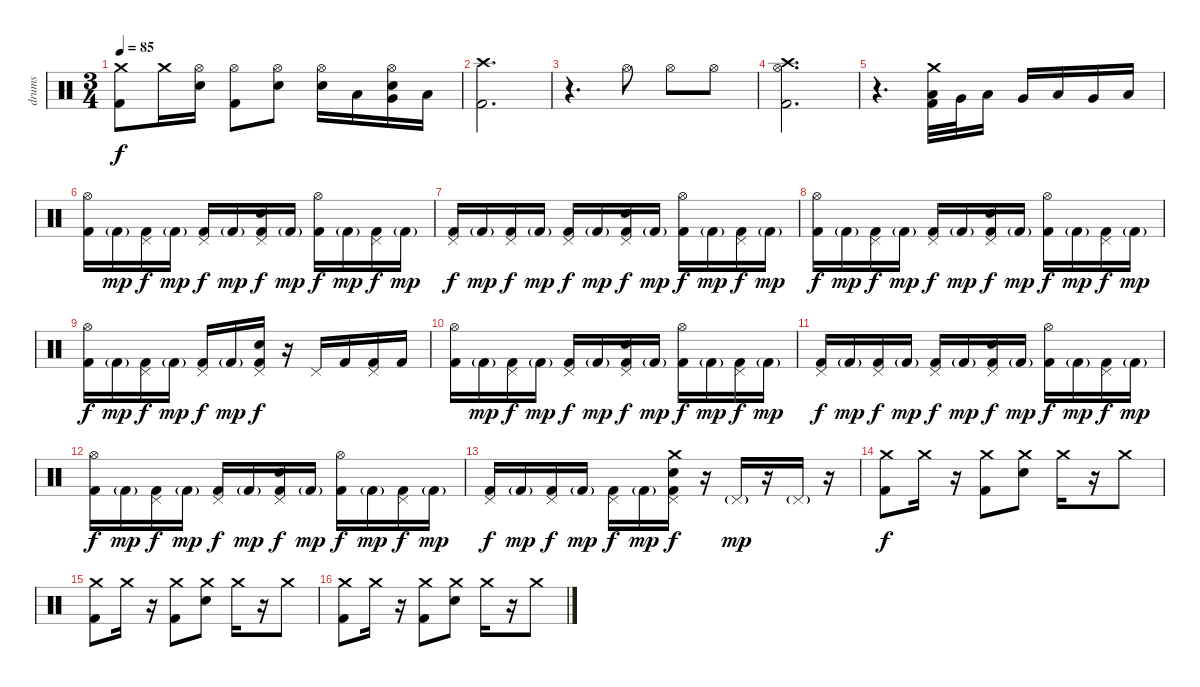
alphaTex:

\track ("drums" "drums") {instrument percussion}
\staff {score}
\articulation defaults
\ts (3 4)
\tempo 85
\clef neutral
\ks c
("Crash medium (hit)" "Kick (hit) 2").8{dy f} "Crash medium (hit)".16 ("Snare (hit) 2" "Hi-Hat (open)").16 ("Kick (hit) 2" "Hi-Hat (open)").8 ("Snare (hit) 2" "Hi-Hat (open)").8 ("Snare (hit) 2" "Hi-Hat (open)").16 "Low Floor Tom (hit)".16 ("Snare (hit) 2" "Very Low Tom (hit)" "Hi-Hat (open)").16 "Low Floor Tom (hit)".16 |
("Crash high (hit)" "Kick (hit) 2").2{d} |
r.4{d} "Hi-Hat (open)".8 "Hi-Hat (open)".8 "Hi-Hat (open)".8 |
("Hi-Hat (open)" "Kick (hit) 2" "Crash high (hit)").2{d} |
r.4{d} ("Crash medium (hit)" "Low Floor Tom (hit)" "Kick (hit) 2").32 "Very Low Tom (hit)".32 "Low Tom (hit)".16 "Very Low Tom (hit)".16 "Low Tom (hit)".16 "Very Low Tom (hit)".16 "Low Floor Tom (hit)".16 |
("Hi-Hat (open)" "Kick (hit) 2").16 "Kick (hit) 2"{g}.16{dy mp} ("Pedal Hi-Hat (hit)" "Kick (hit) 2").16{dy f} "Kick (hit) 2"{g}.16{dy mp} ("Pedal Hi-Hat (hit)" "Kick (hit) 2").16{dy f} "Kick (hit) 2"{g}.16{dy mp} ("Snare (hit) 2" "Pedal Hi-Hat (hit)" "Kick (hit) 2").16{dy f} "Kick (hit) 2"{g}.16{dy mp} ("Hi-Hat (open)" "Kick (hit) 2").16{dy f} "Kick (hit) 2"{g}.16{dy mp} ("Pedal Hi-Hat (hit)" "Kick (hit) 2").16{dy f} "Kick (hit) 2"{g}.16{dy mp} |
("Pedal Hi-Hat (hit)" "Kick (hit) 2").16{dy f} "Kick (hit) 2"{g}.16{dy mp} ("Pedal Hi-Hat (hit)" "Kick (hit) 2").16{dy f} "Kick (hit) 2"{g}.16{dy mp} ("Pedal Hi-Hat (hit)" "Kick (hit) 2").16{dy f} "Kick (hit) 2"{g}.16{dy mp} ("Snare (hit) 2" "Pedal Hi-Hat (hit)" "Kick (hit) 2").16{dy f} "Kick (hit) 2"{g}.16{dy mp} ("Hi-Hat (open)" "Kick (hit) 2").16{dy f} "Kick (hit) 2"{g}.16{dy mp} ("Pedal Hi-Hat (hit)" "Kick (hit) 2").16{dy f} "Kick (hit) 2"{g}.16{dy mp} |
("Hi-Hat (open)" "Kick (hit) 2").16{dy f} "Kick (hit) 2"{g}.16{dy mp} ("Pedal Hi-Hat (hit)" "Kick (hit) 2").16{dy f} "Kick (hit) 2"{g}.16{dy mp} ("Pedal Hi-Hat (hit)" "Kick (hit) 2").16{dy f} "Kick (hit) 2"{g}.16{dy mp} ("Snare (hit) 2" "Pedal Hi-Hat (hit)" "Kick (hit) 2").16{dy f} "Kick (hit) 2"{g}.16{dy mp} ("Hi-Hat (open)" "Kick (hit) 2").16{dy f} "Kick (hit) 2"{g}.16{dy mp} ("Pedal Hi-Hat (hit)" "Kick (hit) 2").16{dy f} "Kick (hit) 2"{g}.16{dy mp} |
("Hi-Hat (open)" "Kick (hit) 2").16{dy f} "Kick (hit) 2"{g}.16{dy mp} ("Pedal Hi-Hat (hit)" "Kick (hit) 2").16{dy f} "Kick (hit) 2"{g}.16{dy mp} ("Pedal Hi-Hat (hit)" "Kick (hit) 2").16{dy f} "Kick (hit) 2"{g}.16{dy mp} ("Snare (hit) 2" "Pedal Hi-Hat (hit)" "Kick (hit) 2").16{dy f} r.16 "Pedal Hi-Hat (hit)".16 "Kick (hit) 2".16 ("Pedal Hi-Hat (hit)" "Kick (hit) 2").16 "Kick (hit) 2".16 |
("Hi-Hat (open)" "Kick (hit) 2").16 "Kick (hit) 2"{g}.16{dy mp} ("Pedal Hi-Hat (hit)" "Kick (hit) 2").16{dy f} "Kick (hit) 2"{g}.16{dy mp} ("Pedal Hi-Hat (hit)" "Kick (hit) 2").16{dy f} "Kick (hit) 2"{g}.16{dy mp} ("Snare (hit) 2" "Pedal Hi-Hat (hit)" "Kick (hit) 2").16{dy f} "Kick (hit) 2"{g}.16{dy mp} ("Hi-Hat (open)" "Kick (hit) 2").16{dy f} "Kick (hit) 2"{g}.16{dy mp} ("Pedal Hi-Hat (hit)" "Kick (hit) 2").16{dy f} "Kick (hit) 2"{g}.16{dy mp} |
("Pedal Hi-Hat (hit)" "Kick (hit) 2").16{dy f} "Kick (hit) 2"{g}.16{dy mp} ("Pedal Hi-Hat (hit)" "Kick (hit) 2").16{dy f} "Kick (hit) 2"{g}.16{dy mp} ("Pedal Hi-Hat (hit)" "Kick (hit) 2").16{dy f} "Kick (hit) 2"{g}.16{dy mp} ("Snare (hit) 2" "Pedal Hi-Hat (hit)" "Kick (hit) 2").16{dy f} "Kick (hit) 2"{g}.16{dy mp} ("Hi-Hat (open)" "Kick (hit) 2").16{dy f} "Kick (hit) 2"{g}.16{dy mp} ("Pedal Hi-Hat (hit)" "Kick (hit) 2").16{dy f} "Kick (hit) 2"{g}.16{dy mp} |
("Hi-Hat (open)" "Kick (hit) 2").16{dy f} "Kick (hit) 2"{g}.16{dy mp} ("Pedal Hi-Hat (hit)" "Kick (hit) 2").16{dy f} "Kick (hit) 2"{g}.16{dy mp} ("Pedal Hi-Hat (hit)" "Kick (hit) 2").16{dy f} "Kick (hit) 2"{g}.16{dy mp} ("Snare (hit) 2" "Pedal Hi-Hat (hit)" "Kick (hit) 2").16{dy f} "Kick (hit) 2"{g}.16{dy mp} ("Hi-Hat (open)" "Kick (hit) 2").16{dy f} "Kick (hit) 2"{g}.16{dy mp} ("Pedal Hi-Hat (hit)" "Kick (hit) 2").16{dy f} "Kick (hit) 2"{g}.16{dy mp} |
("Pedal Hi-Hat (hit)" "Kick (hit) 2").16{dy f} "Kick (hit) 2"{g}.16{dy mp} ("Pedal Hi-Hat (hit)" "Kick (hit) 2").16{dy f} "Kick (hit) 2"{g}.16{dy mp} ("Pedal Hi-Hat (hit)" "Kick (hit) 2").16{dy f} "Kick (hit) 2"{g}.16{dy mp} ("Snare (hit) 2" "Crash medium (hit)" "Pedal Hi-Hat (hit)" "Kick (hit) 2").16{dy f} r.16 "Pedal Hi-Hat (hit)"{g}.16{dy mp} r.16 "Pedal Hi-Hat (hit)"{g}.16 r.16 |
("Crash medium (hit)" "Kick (hit) 2").8{dy f} "Crash medium (hit)".16 r.16 ("Kick (hit) 2" "Crash medium (hit)").8 ("Snare (hit) 2" "Crash medium (hit)").8 "Crash medium (hit)".16 r.16 "Crash medium (hit)".8 |
("Crash medium (hit)" "Kick (hit) 2").8 "Crash medium (hit)".16 r.16 ("Kick (hit) 2" "Crash medium (hit)").8 ("Snare (hit) 2" "Crash medium (hit)").8 "Crash medium (hit)".16 r.16 "Crash medium (hit)".8 |
("Crash medium (hit)" "Kick (hit) 2").8 "Crash medium (hit)".16 r.16 ("Kick (hit) 2" "Crash medium (hit)").8 ("Snare (hit) 2" "Crash medium (hit)").8 "Crash medium (hit)".16 r.16 "Crash medium (hit)".8
